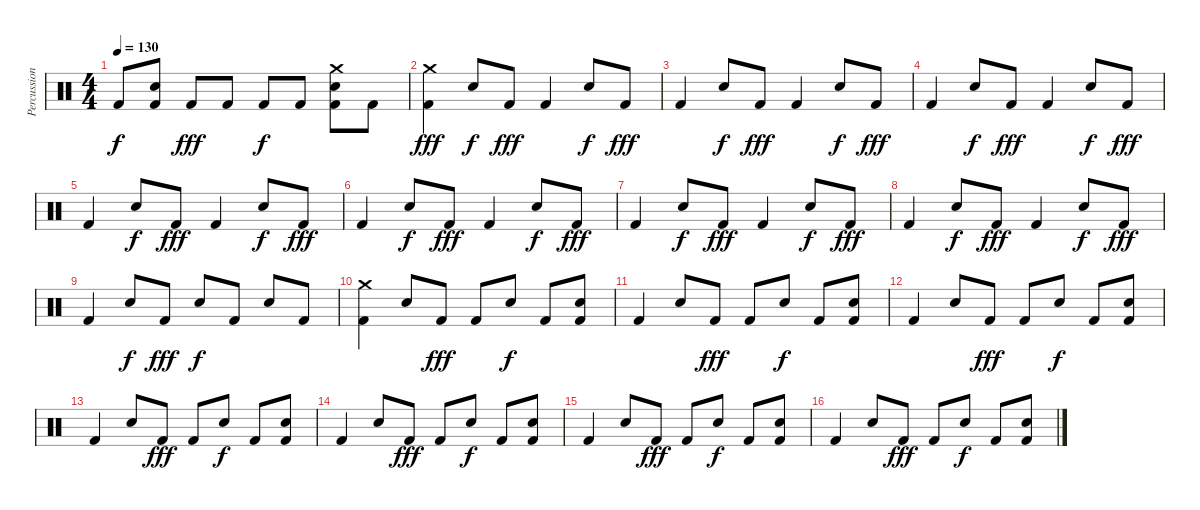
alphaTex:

\track ("Percussion" "Percussion") {instrument percussion}
\staff {score}
\articulation defaults
\ts (4 4)
\tempo 130
\clef neutral
\ks c "Kick (hit) 2".8{dy f}
("Electric Snare (hit)" "Kick (hit) 2").8 "Kick (hit) 2".8{dy fff} "Kick (hit) 2".8 "Kick (hit) 2".8{dy f} "Kick (hit) 2".8 ("Electric Snare (hit)" "Crash medium (hit)" "Kick (hit) 2").8 "Kick (hit) 2".8 |
("Crash medium (hit)" "Kick (hit) 2").4{dy fff} "Electric Snare (hit)".8{dy f} "Kick (hit) 2".8{dy fff} "Kick (hit) 2".4 "Electric Snare (hit)".8{dy f} "Kick (hit) 2".8{dy fff} |
"Kick (hit) 2".4 "Electric Snare (hit)".8{dy f} "Kick (hit) 2".8{dy fff} "Kick (hit) 2".4 "Electric Snare (hit)".8{dy f} "Kick (hit) 2".8{dy fff} |
"Kick (hit) 2".4 "Electric Snare (hit)".8{dy f} "Kick (hit) 2".8{dy fff} "Kick (hit) 2".4 "Electric Snare (hit)".8{dy f} "Kick (hit) 2".8{dy fff} |
"Kick (hit) 2".4 "Electric Snare (hit)".8{dy f} "Kick (hit) 2".8{dy fff} "Kick (hit) 2".4 "Electric Snare (hit)".8{dy f} "Kick (hit) 2".8{dy fff} |
"Kick (hit) 2".4 "Electric Snare (hit)".8{dy f} "Kick (hit) 2".8{dy fff} "Kick (hit) 2".4 "Electric Snare (hit)".8{dy f} "Kick (hit) 2".8{dy fff} |
"Kick (hit) 2".4 "Electric Snare (hit)".8{dy f} "Kick (hit) 2".8{dy fff} "Kick (hit) 2".4 "Electric Snare (hit)".8{dy f} "Kick (hit) 2".8{dy fff} |
"Kick (hit) 2".4 "Electric Snare (hit)".8{dy f} "Kick (hit) 2".8{dy fff} "Kick (hit) 2".4 "Electric Snare (hit)".8{dy f} "Kick (hit) 2".8{dy fff} |
"Kick (hit) 2".4 "Electric Snare (hit)".8{dy f} "Kick (hit) 2".8{dy fff} "Electric Snare (hit)".8{dy f} "Kick (hit) 2".8 "Electric Snare (hit)".8 "Kick (hit) 2".8 |
("Crash medium (hit)" "Kick (hit) 2").4 "Electric Snare (hit)".8 "Kick (hit) 2".8{dy fff} "Kick (hit) 2".8 "Electric Snare (hit)".8{dy f} "Kick (hit) 2".8 ("Electric Snare (hit)" "Kick (hit) 2").8 |
"Kick (hit) 2".4 "Electric Snare (hit)".8 "Kick (hit) 2".8{dy fff} "Kick (hit) 2".8 "Electric Snare (hit)".8{dy f} "Kick (hit) 2".8 ("Electric Snare (hit)" "Kick (hit) 2").8 |
"Kick (hit) 2".4 "Electric Snare (hit)".8 "Kick (hit) 2".8{dy fff} "Kick (hit) 2".8 "Electric Snare (hit)".8{dy f} "Kick (hit) 2".8 ("Electric Snare (hit)" "Kick (hit) 2").8 |
"Kick (hit) 2".4 "Electric Snare (hit)".8 "Kick (hit) 2".8{dy fff} "Kick (hit) 2".8 "Electric Snare (hit)".8{dy f} "Kick (hit) 2".8 ("Electric Snare (hit)" "Kick (hit) 2").8 |
"Kick (hit) 2".4 "Electric Snare (hit)".8 "Kick (hit) 2".8{dy fff} "Kick (hit) 2".8 "Electric Snare (hit)".8{dy f} "Kick (hit) 2".8 ("Electric Snare (hit)" "Kick (hit) 2").8 |
"Kick (hit) 2".4 "Electric Snare (hit)".8 "Kick (hit) 2".8{dy fff} "Kick (hit) 2".8 "Electric Snare (hit)".8{dy f} "Kick (hit) 2".8 ("Electric Snare (hit)" "Kick (hit) 2").8 |
"Kick (hit) 2".4 "Electric Snare (hit)".8 "Kick (hit) 2".8{dy fff} "Kick (hit) 2".8 "Electric Snare (hit)".8{dy f} "Kick (hit) 2".8 ("Electric Snare (hit)" "Kick (hit) 2").8
